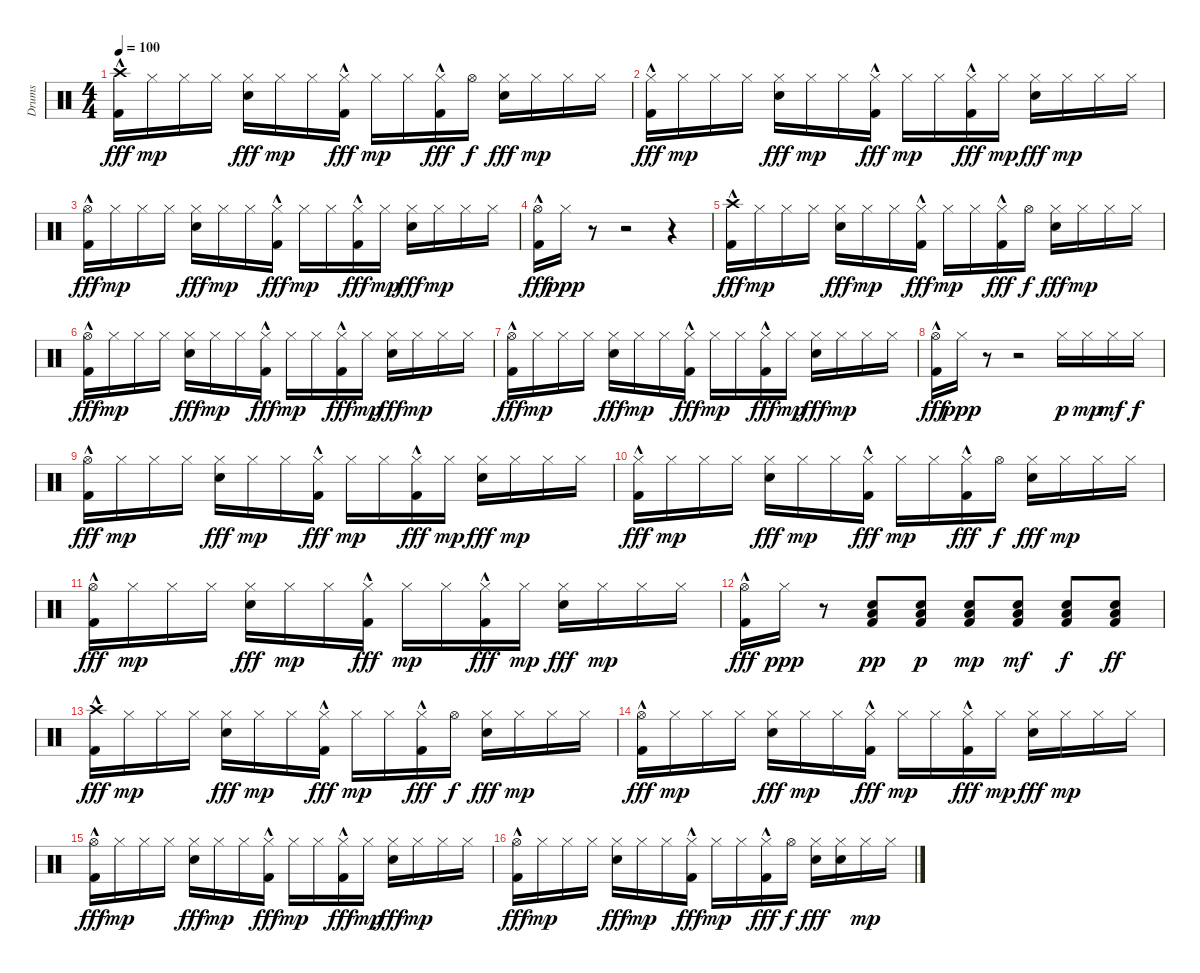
\track ("Drums" "Drums") {instrument percussion}
\staff {score}
\articulation defaults
\ts (4 4)
\tempo 100
\clef neutral
\ks c
("Crash high (hit)" "Kick (hit) 2"{hac}).16{dy fff} "Hi-Hat (closed)".16{dy mp} "Hi-Hat (closed)".16 "Hi-Hat (closed)".16 ("Hi-Hat (closed)" "Snare (hit) 2").16{dy fff} "Hi-Hat (closed)".16{dy mp} "Hi-Hat (closed)".16 ("Hi-Hat (closed)" "Kick (hit) 2"{hac}).16{dy fff} "Hi-Hat (closed)".16{dy mp} "Hi-Hat (closed)".16 ("Hi-Hat (closed)" "Kick (hit) 2"{hac}).16{dy fff} "Hi-Hat (open)".16{dy f} ("Hi-Hat (closed)" "Snare (hit) 2").16{dy fff} "Hi-Hat (closed)".16{dy mp} "Hi-Hat (closed)".16 "Hi-Hat (closed)".16 |
("Hi-Hat (closed)" "Kick (hit) 2"{hac}).16{dy fff} "Hi-Hat (closed)".16{dy mp} "Hi-Hat (closed)".16 "Hi-Hat (closed)".16 ("Hi-Hat (closed)" "Snare (hit) 2").16{dy fff} "Hi-Hat (closed)".16{dy mp} "Hi-Hat (closed)".16 ("Hi-Hat (closed)" "Kick (hit) 2"{hac}).16{dy fff} "Hi-Hat (closed)".16{dy mp} "Hi-Hat (closed)".16 ("Hi-Hat (closed)" "Kick (hit) 2"{hac}).16{dy fff} "Hi-Hat (closed)".16{dy mp} ("Hi-Hat (closed)" "Snare (hit) 2").16{dy fff} "Hi-Hat (closed)".16{dy mp} "Hi-Hat (closed)".16 "Hi-Hat (closed)".16 |
("Hi-Hat (open)" "Kick (hit) 2"{hac}).16{dy fff} "Hi-Hat (closed)".16{dy mp} "Hi-Hat (closed)".16 "Hi-Hat (closed)".16 ("Hi-Hat (closed)" "Snare (hit) 2").16{dy fff} "Hi-Hat (closed)".16{dy mp} "Hi-Hat (closed)".16 ("Hi-Hat (closed)" "Kick (hit) 2"{hac}).16{dy fff} "Hi-Hat (closed)".16{dy mp} "Hi-Hat (closed)".16 ("Hi-Hat (closed)" "Kick (hit) 2"{hac}).16{dy fff} "Hi-Hat (closed)".16{dy mp} ("Hi-Hat (closed)" "Snare (hit) 2").16{dy fff} "Hi-Hat (closed)".16{dy mp} "Hi-Hat (closed)".16 "Hi-Hat (closed)".16 |
("Hi-Hat (open)" "Kick (hit) 2"{hac}).16{dy fff} "Hi-Hat (closed)".16{dy ppp} r.8 r.2 r.4 |
("Crash high (hit)" "Kick (hit) 2"{hac}).16{dy fff} "Hi-Hat (closed)".16{dy mp} "Hi-Hat (closed)".16 "Hi-Hat (closed)".16 ("Hi-Hat (closed)" "Snare (hit) 2").16{dy fff} "Hi-Hat (closed)".16{dy mp} "Hi-Hat (closed)".16 ("Hi-Hat (closed)" "Kick (hit) 2"{hac}).16{dy fff} "Hi-Hat (closed)".16{dy mp} "Hi-Hat (closed)".16 ("Hi-Hat (closed)" "Kick (hit) 2"{hac}).16{dy fff} "Hi-Hat (open)".16{dy f} ("Hi-Hat (closed)" "Snare (hit) 2").16{dy fff} "Hi-Hat (closed)".16{dy mp} "Hi-Hat (closed)".16 "Hi-Hat (closed)".16 |
("Hi-Hat (open)" "Kick (hit) 2"{hac}).16{dy fff} "Hi-Hat (closed)".16{dy mp} "Hi-Hat (closed)".16 "Hi-Hat (closed)".16 ("Hi-Hat (closed)" "Snare (hit) 2").16{dy fff} "Hi-Hat (closed)".16{dy mp} "Hi-Hat (closed)".16 ("Hi-Hat (closed)" "Kick (hit) 2"{hac}).16{dy fff} "Hi-Hat (closed)".16{dy mp} "Hi-Hat (closed)".16 ("Hi-Hat (closed)" "Kick (hit) 2"{hac}).16{dy fff} "Hi-Hat (closed)".16{dy mp} ("Hi-Hat (closed)" "Snare (hit) 2").16{dy fff} "Hi-Hat (closed)".16{dy mp} "Hi-Hat (closed)".16 "Hi-Hat (closed)".16 |
("Hi-Hat (open)" "Kick (hit) 2"{hac}).16{dy fff} "Hi-Hat (closed)".16{dy mp} "Hi-Hat (closed)".16 "Hi-Hat (closed)".16 ("Hi-Hat (closed)" "Snare (hit) 2").16{dy fff} "Hi-Hat (closed)".16{dy mp} "Hi-Hat (closed)".16 ("Hi-Hat (closed)" "Kick (hit) 2"{hac}).16{dy fff} "Hi-Hat (closed)".16{dy mp} "Hi-Hat (closed)".16 ("Hi-Hat (closed)" "Kick (hit) 2"{hac}).16{dy fff} "Hi-Hat (closed)".16{dy mp} ("Hi-Hat (closed)" "Snare (hit) 2").16{dy fff} "Hi-Hat (closed)".16{dy mp} "Hi-Hat (closed)".16 "Hi-Hat (closed)".16 |
("Hi-Hat (open)" "Kick (hit) 2"{hac}).16{dy fff} "Hi-Hat (closed)".16{dy ppp} r.8 r.2 "Hi-Hat (closed)".16{dy p} "Hi-Hat (closed)".16{dy mp} "Hi-Hat (closed)".16{dy mf} "Hi-Hat (closed)".16{dy f} |
("Hi-Hat (open)" "Kick (hit) 2"{hac}).16{dy fff} "Hi-Hat (closed)".16{dy mp} "Hi-Hat (closed)".16 "Hi-Hat (closed)".16 ("Hi-Hat (closed)" "Snare (hit) 2").16{dy fff} "Hi-Hat (closed)".16{dy mp} "Hi-Hat (closed)".16 ("Hi-Hat (closed)" "Kick (hit) 2"{hac}).16{dy fff} "Hi-Hat (closed)".16{dy mp} "Hi-Hat (closed)".16 ("Hi-Hat (closed)" "Kick (hit) 2"{hac}).16{dy fff} "Hi-Hat (closed)".16{dy mp} ("Hi-Hat (closed)" "Snare (hit) 2").16{dy fff} "Hi-Hat (closed)".16{dy mp} "Hi-Hat (closed)".16 "Hi-Hat (closed)".16 |
("Hi-Hat (closed)" "Kick (hit) 2"{hac}).16{dy fff} "Hi-Hat (closed)".16{dy mp} "Hi-Hat (closed)".16 "Hi-Hat (closed)".16 ("Hi-Hat (closed)" "Snare (hit) 2").16{dy fff} "Hi-Hat (closed)".16{dy mp} "Hi-Hat (closed)".16 ("Hi-Hat (closed)" "Kick (hit) 2"{hac}).16{dy fff} "Hi-Hat (closed)".16{dy mp} "Hi-Hat (closed)".16 ("Hi-Hat (closed)" "Kick (hit) 2"{hac}).16{dy fff} "Hi-Hat (open)".16{dy f} ("Hi-Hat (closed)" "Snare (hit) 2").16{dy fff} "Hi-Hat (closed)".16{dy mp} "Hi-Hat (closed)".16 "Hi-Hat (closed)".16 |
("Hi-Hat (open)" "Kick (hit) 2"{hac}).16{dy fff} "Hi-Hat (closed)".16{dy mp} "Hi-Hat (closed)".16 "Hi-Hat (closed)".16 ("Hi-Hat (closed)" "Snare (hit) 2").16{dy fff} "Hi-Hat (closed)".16{dy mp} "Hi-Hat (closed)".16 ("Hi-Hat (closed)" "Kick (hit) 2"{hac}).16{dy fff} "Hi-Hat (closed)".16{dy mp} "Hi-Hat (closed)".16 ("Hi-Hat (closed)" "Kick (hit) 2"{hac}).16{dy fff} "Hi-Hat (closed)".16{dy mp} ("Hi-Hat (closed)" "Snare (hit) 2").16{dy fff} "Hi-Hat (closed)".16{dy mp} "Hi-Hat (closed)".16 "Hi-Hat (closed)".16 |
("Hi-Hat (open)" "Kick (hit) 2"{hac}).16{dy fff} "Hi-Hat (closed)".16{dy ppp} r.8 ("Snare (hit) 2" "Low Floor Tom (hit)" "Kick (hit) 2").8{dy pp} ("Snare (hit) 2" "Low Floor Tom (hit)" "Kick (hit) 2").8{dy p} ("Snare (hit) 2" "Low Floor Tom (hit)" "Kick (hit) 2").8{dy mp} ("Snare (hit) 2" "Low Floor Tom (hit)" "Kick (hit) 2").8{dy mf} ("Snare (hit) 2" "Low Floor Tom (hit)" "Kick (hit) 2").8{dy f} ("Snare (hit) 2" "Low Floor Tom (hit)" "Kick (hit) 2").8{dy ff} |
("Crash high (hit)" "Kick (hit) 2"{hac}).16{dy fff} "Hi-Hat (closed)".16{dy mp} "Hi-Hat (closed)".16 "Hi-Hat (closed)".16 ("Hi-Hat (closed)" "Snare (hit) 2").16{dy fff} "Hi-Hat (closed)".16{dy mp} "Hi-Hat (closed)".16 ("Hi-Hat (closed)" "Kick (hit) 2"{hac}).16{dy fff} "Hi-Hat (closed)".16{dy mp} "Hi-Hat (closed)".16 ("Hi-Hat (closed)" "Kick (hit) 2"{hac}).16{dy fff} "Hi-Hat (open)".16{dy f} ("Hi-Hat (closed)" "Snare (hit) 2").16{dy fff} "Hi-Hat (closed)".16{dy mp} "Hi-Hat (closed)".16 "Hi-Hat (closed)".16 |
("Hi-Hat (open)" "Kick (hit) 2"{hac}).16{dy fff} "Hi-Hat (closed)".16{dy mp} "Hi-Hat (closed)".16 "Hi-Hat (closed)".16 ("Hi-Hat (closed)" "Snare (hit) 2").16{dy fff} "Hi-Hat (closed)".16{dy mp} "Hi-Hat (closed)".16 ("Hi-Hat (closed)" "Kick (hit) 2"{hac}).16{dy fff} "Hi-Hat (closed)".16{dy mp} "Hi-Hat (closed)".16 ("Hi-Hat (closed)" "Kick (hit) 2"{hac}).16{dy fff} "Hi-Hat (closed)".16{dy mp} ("Hi-Hat (closed)" "Snare (hit) 2").16{dy fff} "Hi-Hat (closed)".16{dy mp} "Hi-Hat (closed)".16 "Hi-Hat (closed)".16 |
("Hi-Hat (open)" "Kick (hit) 2"{hac}).16{dy fff} "Hi-Hat (closed)".16{dy mp} "Hi-Hat (closed)".16 "Hi-Hat (closed)".16 ("Hi-Hat (closed)" "Snare (hit) 2").16{dy fff} "Hi-Hat (closed)".16{dy mp} "Hi-Hat (closed)".16 ("Hi-Hat (closed)" "Kick (hit) 2"{hac}).16{dy fff} "Hi-Hat (closed)".16{dy mp} "Hi-Hat (closed)".16 ("Hi-Hat (closed)" "Kick (hit) 2"{hac}).16{dy fff} "Hi-Hat (closed)".16{dy mp} ("Hi-Hat (closed)" "Snare (hit) 2").16{dy fff} "Hi-Hat (closed)".16{dy mp} "Hi-Hat (closed)".16 "Hi-Hat (closed)".16 |
("Hi-Hat (open)" "Kick (hit) 2"{hac}).16{dy fff} "Hi-Hat (closed)".16{dy mp} "Hi-Hat (closed)".16 "Hi-Hat (closed)".16 ("Hi-Hat (closed)" "Snare (hit) 2").16{dy fff} "Hi-Hat (closed)".16{dy mp} "Hi-Hat (closed)".16 ("Hi-Hat (closed)" "Kick (hit) 2"{hac}).16{dy fff} "Hi-Hat (closed)".16{dy mp} "Hi-Hat (closed)".16 ("Hi-Hat (closed)" "Kick (hit) 2"{hac}).16{dy fff} "Hi-Hat (open)".16{dy f} ("Hi-Hat (closed)" "Snare (hit) 2").16{dy fff} ("Hi-Hat (closed)" "Snare (hit) 2").16 "Hi-Hat (closed)".16{dy mp} "Hi-Hat (closed)".16
